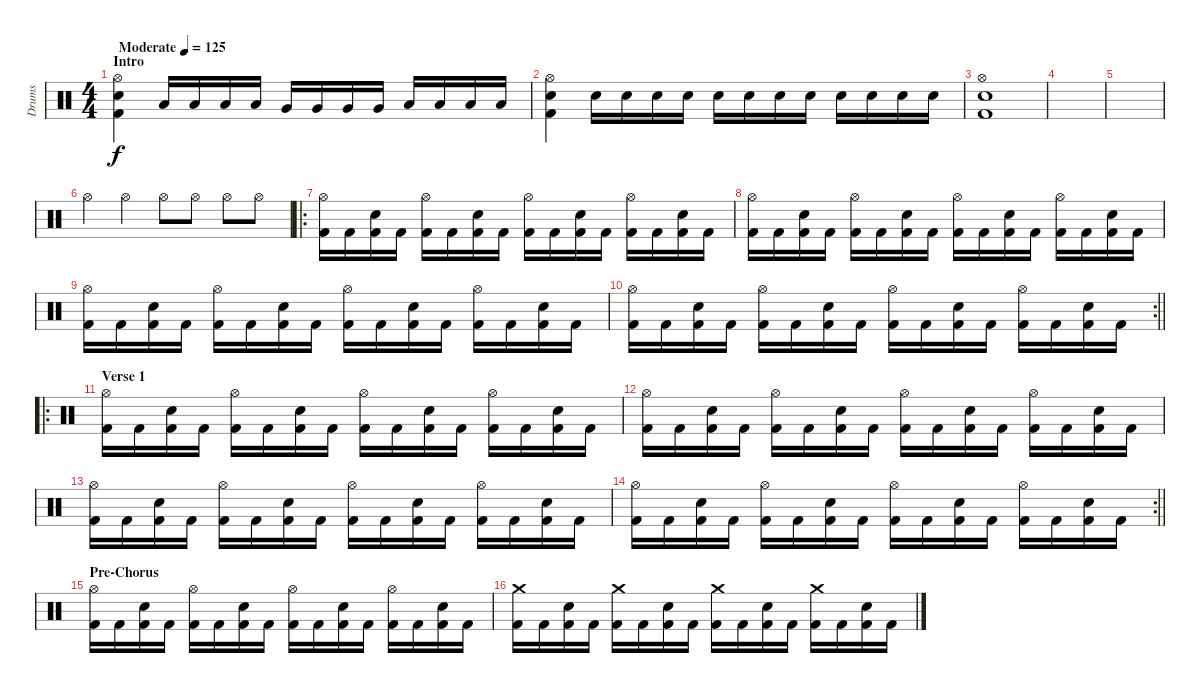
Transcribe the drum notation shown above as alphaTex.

\track ("Drums" "Drums") {instrument percussion}
\staff {score}
\articulation defaults
\ts (4 4)
\section ("" "Intro")
\tempo (125 "Moderate")
\clef neutral
\ks c
("Hi-Hat (open)" "Snare (hit) 2" "Kick (hit) 2").4{dy f} "Low Tom (hit)".16 "Low Tom (hit)".16 "Low Tom (hit)".16 "Low Tom (hit)".16 "Very Low Tom (hit)".16 "Very Low Tom (hit)".16 "Very Low Tom (hit)".16 "Very Low Tom (hit)".16 "Low Floor Tom (hit)".16 "Low Floor Tom (hit)".16 "Low Floor Tom (hit)".16 "Low Floor Tom (hit)".16 |
("Hi-Hat (open)" "Snare (hit) 2" "Kick (hit) 2").4 "Snare (hit) 2".16 "Snare (hit) 2".16 "Snare (hit) 2".16 "Snare (hit) 2".16 "Snare (hit) 2".16 "Snare (hit) 2".16 "Snare (hit) 2".16 "Snare (hit) 2".16 "Snare (hit) 2".16 "Snare (hit) 2".16 "Snare (hit) 2".16 "Snare (hit) 2".16 |
("Hi-Hat (open)" "Snare (hit) 2" "Kick (hit) 2").1 |
|
|
"Hi-Hat (open)".4 "Hi-Hat (open)".4 "Hi-Hat (open)".8 "Hi-Hat (open)".8 "Hi-Hat (open)".8 "Hi-Hat (open)".8 |
\ro
("Hi-Hat (open)" "Kick (hit) 2").16 "Kick (hit) 2".16 ("Snare (hit) 2" "Kick (hit) 2").16 "Kick (hit) 2".16 ("Hi-Hat (open)" "Kick (hit) 2").16 "Kick (hit) 2".16 ("Snare (hit) 2" "Kick (hit) 2").16 "Kick (hit) 2".16 ("Hi-Hat (open)" "Kick (hit) 2").16 "Kick (hit) 2".16 ("Snare (hit) 2" "Kick (hit) 2").16 "Kick (hit) 2".16 ("Hi-Hat (open)" "Kick (hit) 2").16 "Kick (hit) 2".16 ("Snare (hit) 2" "Kick (hit) 2").16 "Kick (hit) 2".16 |
("Hi-Hat (open)" "Kick (hit) 2").16 "Kick (hit) 2".16 ("Snare (hit) 2" "Kick (hit) 2").16 "Kick (hit) 2".16 ("Hi-Hat (open)" "Kick (hit) 2").16 "Kick (hit) 2".16 ("Snare (hit) 2" "Kick (hit) 2").16 "Kick (hit) 2".16 ("Hi-Hat (open)" "Kick (hit) 2").16 "Kick (hit) 2".16 ("Snare (hit) 2" "Kick (hit) 2").16 "Kick (hit) 2".16 ("Hi-Hat (open)" "Kick (hit) 2").16 "Kick (hit) 2".16 ("Snare (hit) 2" "Kick (hit) 2").16 "Kick (hit) 2".16 |
("Hi-Hat (open)" "Kick (hit) 2").16 "Kick (hit) 2".16 ("Snare (hit) 2" "Kick (hit) 2").16 "Kick (hit) 2".16 ("Hi-Hat (open)" "Kick (hit) 2").16 "Kick (hit) 2".16 ("Snare (hit) 2" "Kick (hit) 2").16 "Kick (hit) 2".16 ("Hi-Hat (open)" "Kick (hit) 2").16 "Kick (hit) 2".16 ("Snare (hit) 2" "Kick (hit) 2").16 "Kick (hit) 2".16 ("Hi-Hat (open)" "Kick (hit) 2").16 "Kick (hit) 2".16 ("Snare (hit) 2" "Kick (hit) 2").16 "Kick (hit) 2".16 |
\rc 2
\barLineRight lightlight
("Hi-Hat (open)" "Kick (hit) 2").16 "Kick (hit) 2".16 ("Snare (hit) 2" "Kick (hit) 2").16 "Kick (hit) 2".16 ("Hi-Hat (open)" "Kick (hit) 2").16 "Kick (hit) 2".16 ("Snare (hit) 2" "Kick (hit) 2").16 "Kick (hit) 2".16 ("Hi-Hat (open)" "Kick (hit) 2").16 "Kick (hit) 2".16 ("Snare (hit) 2" "Kick (hit) 2").16 "Kick (hit) 2".16 ("Hi-Hat (open)" "Kick (hit) 2").16 "Kick (hit) 2".16 ("Snare (hit) 2" "Kick (hit) 2").16 "Kick (hit) 2".16 |
\ro
\section ("" "Verse 1")
("Hi-Hat (open)" "Kick (hit) 2").16 "Kick (hit) 2".16 ("Snare (hit) 2" "Kick (hit) 2").16 "Kick (hit) 2".16 ("Hi-Hat (open)" "Kick (hit) 2").16 "Kick (hit) 2".16 ("Snare (hit) 2" "Kick (hit) 2").16 "Kick (hit) 2".16 ("Hi-Hat (open)" "Kick (hit) 2").16 "Kick (hit) 2".16 ("Snare (hit) 2" "Kick (hit) 2").16 "Kick (hit) 2".16 ("Hi-Hat (open)" "Kick (hit) 2").16 "Kick (hit) 2".16 ("Snare (hit) 2" "Kick (hit) 2").16 "Kick (hit) 2".16 |
("Hi-Hat (open)" "Kick (hit) 2").16 "Kick (hit) 2".16 ("Snare (hit) 2" "Kick (hit) 2").16 "Kick (hit) 2".16 ("Hi-Hat (open)" "Kick (hit) 2").16 "Kick (hit) 2".16 ("Snare (hit) 2" "Kick (hit) 2").16 "Kick (hit) 2".16 ("Hi-Hat (open)" "Kick (hit) 2").16 "Kick (hit) 2".16 ("Snare (hit) 2" "Kick (hit) 2").16 "Kick (hit) 2".16 ("Hi-Hat (open)" "Kick (hit) 2").16 "Kick (hit) 2".16 ("Snare (hit) 2" "Kick (hit) 2").16 "Kick (hit) 2".16 |
("Hi-Hat (open)" "Kick (hit) 2").16 "Kick (hit) 2".16 ("Snare (hit) 2" "Kick (hit) 2").16 "Kick (hit) 2".16 ("Hi-Hat (open)" "Kick (hit) 2").16 "Kick (hit) 2".16 ("Snare (hit) 2" "Kick (hit) 2").16 "Kick (hit) 2".16 ("Hi-Hat (open)" "Kick (hit) 2").16 "Kick (hit) 2".16 ("Snare (hit) 2" "Kick (hit) 2").16 "Kick (hit) 2".16 ("Hi-Hat (open)" "Kick (hit) 2").16 "Kick (hit) 2".16 ("Snare (hit) 2" "Kick (hit) 2").16 "Kick (hit) 2".16 |
\rc 2
\barLineRight lightlight
("Hi-Hat (open)" "Kick (hit) 2").16 "Kick (hit) 2".16 ("Snare (hit) 2" "Kick (hit) 2").16 "Kick (hit) 2".16 ("Hi-Hat (open)" "Kick (hit) 2").16 "Kick (hit) 2".16 ("Snare (hit) 2" "Kick (hit) 2").16 "Kick (hit) 2".16 ("Hi-Hat (open)" "Kick (hit) 2").16 "Kick (hit) 2".16 ("Snare (hit) 2" "Kick (hit) 2").16 "Kick (hit) 2".16 ("Hi-Hat (open)" "Kick (hit) 2").16 "Kick (hit) 2".16 ("Snare (hit) 2" "Kick (hit) 2").16 "Kick (hit) 2".16 |
\section ("" "Pre-Chorus")
("Hi-Hat (open)" "Kick (hit) 2").16 "Kick (hit) 2".16 ("Snare (hit) 2" "Kick (hit) 2").16 "Kick (hit) 2".16 ("Hi-Hat (open)" "Kick (hit) 2").16 "Kick (hit) 2".16 ("Snare (hit) 2" "Kick (hit) 2").16 "Kick (hit) 2".16 ("Hi-Hat (open)" "Kick (hit) 2").16 "Kick (hit) 2".16 ("Snare (hit) 2" "Kick (hit) 2").16 "Kick (hit) 2".16 ("Hi-Hat (open)" "Kick (hit) 2").16 "Kick (hit) 2".16 ("Snare (hit) 2" "Kick (hit) 2").16 "Kick (hit) 2".16 |
("Crash medium (hit)" "Kick (hit) 2").16 "Kick (hit) 2".16 ("Snare (hit) 2" "Kick (hit) 2").16 "Kick (hit) 2".16 ("Crash medium (hit)" "Kick (hit) 2").16 "Kick (hit) 2".16 ("Snare (hit) 2" "Kick (hit) 2").16 "Kick (hit) 2".16 ("Crash medium (hit)" "Kick (hit) 2").16 "Kick (hit) 2".16 ("Snare (hit) 2" "Kick (hit) 2").16 "Kick (hit) 2".16 ("Crash medium (hit)" "Kick (hit) 2").16 "Kick (hit) 2".16 ("Snare (hit) 2" "Kick (hit) 2").16 "Kick (hit) 2".16
